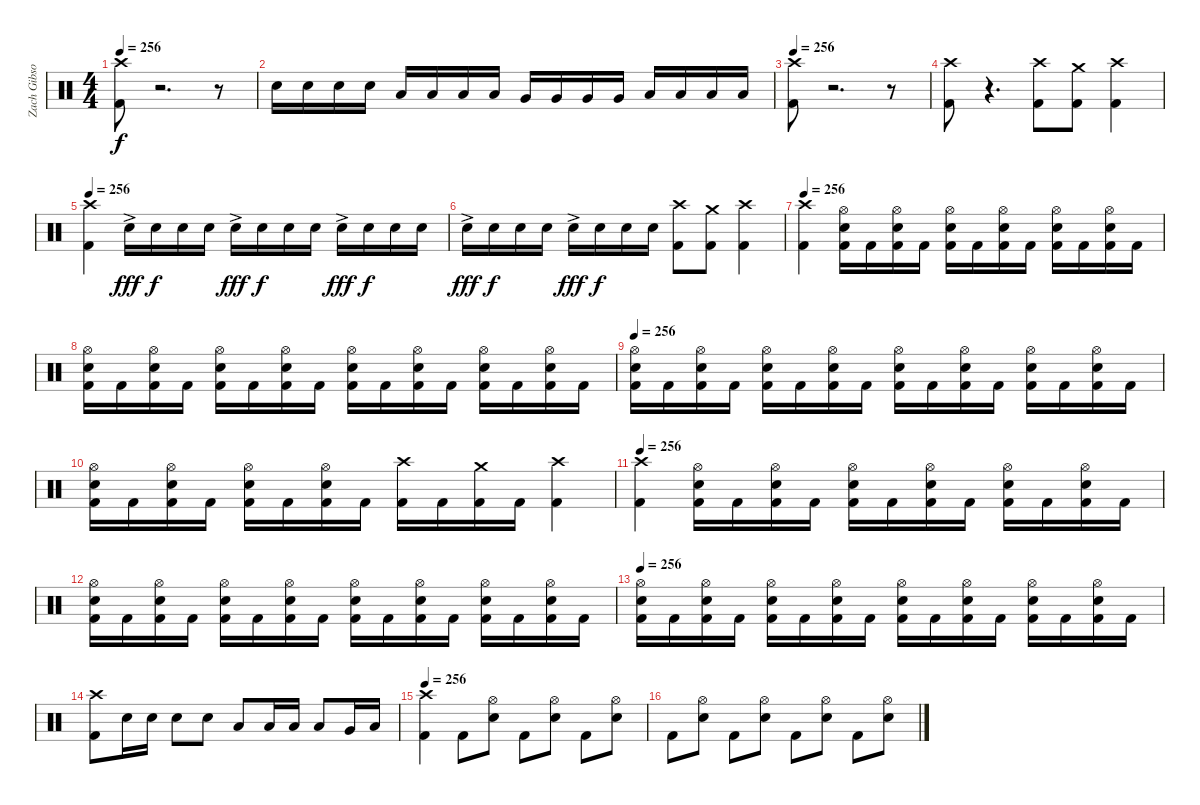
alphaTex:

\track ("Zach Gibson (Drums)" "Zach Gibso") {instrument percussion}
\staff {score}
\articulation defaults
\ts (4 4)
\tempo 256
\clef neutral
\ks c
("Crash high (hit)" "Kick (hit) 2").8{dy f volume 16} r.2{d volume 0} r.8 |
"Snare (hit) 2".16{volume 16 balance 0} "Snare (hit) 2".16 "Snare (hit) 2".16 "Snare (hit) 2".16 "Low Tom (hit)".16 "Low Tom (hit)".16 "Low Tom (hit)".16 "Low Tom (hit)".16 "Very Low Tom (hit)".16{balance 16} "Very Low Tom (hit)".16 "Very Low Tom (hit)".16 "Very Low Tom (hit)".16 "Low Floor Tom (hit)".16 "Low Floor Tom (hit)".16 "Low Floor Tom (hit)".16 "Low Floor Tom (hit)".16 |
\tempo 256
("Crash high (hit)" "Kick (hit) 2").8{volume 16 balance 8} r.2{d volume 0} r.8 |
("Crash high (hit)" "Kick (hit) 2").8{volume 16} r.4{d volume 0} ("Crash high (hit)" "Kick (hit) 2").8{volume 16} ("Crash medium (hit)" "Kick (hit) 2").8 ("Crash high (hit)" "Kick (hit) 2").4 |
\tempo 256
("Crash high (hit)" "Kick (hit) 2").4{balance 8} "Snare (hit) 2"{ac}.16{dy fff} "Snare (hit) 2".16{dy f} "Snare (hit) 2".16 "Snare (hit) 2".16 "Snare (hit) 2"{ac}.16{dy fff} "Snare (hit) 2".16{dy f} "Snare (hit) 2".16 "Snare (hit) 2".16 "Snare (hit) 2"{ac}.16{dy fff} "Snare (hit) 2".16{dy f} "Snare (hit) 2".16 "Snare (hit) 2".16 |
"Snare (hit) 2"{ac}.16{dy fff} "Snare (hit) 2".16{dy f} "Snare (hit) 2".16 "Snare (hit) 2".16 "Snare (hit) 2"{ac}.16{dy fff} "Snare (hit) 2".16{dy f} "Snare (hit) 2".16 "Snare (hit) 2".16 ("Crash high (hit)" "Kick (hit) 2").8 ("Crash medium (hit)" "Kick (hit) 2").8 ("Crash high (hit)" "Kick (hit) 2").4 |
\tempo 256
("Crash high (hit)" "Kick (hit) 2").4{volume 16 balance 8} ("Hi-Hat (open)" "Snare (hit) 2" "Kick (hit) 2").16 "Kick (hit) 2".16 ("Hi-Hat (open)" "Snare (hit) 2" "Kick (hit) 2").16 "Kick (hit) 2".16 ("Hi-Hat (open)" "Snare (hit) 2" "Kick (hit) 2").16 "Kick (hit) 2".16 ("Hi-Hat (open)" "Snare (hit) 2" "Kick (hit) 2").16 "Kick (hit) 2".16 ("Hi-Hat (open)" "Snare (hit) 2" "Kick (hit) 2").16 "Kick (hit) 2".16 ("Hi-Hat (open)" "Snare (hit) 2" "Kick (hit) 2").16 "Kick (hit) 2".16 |
("Hi-Hat (open)" "Snare (hit) 2" "Kick (hit) 2").16 "Kick (hit) 2".16 ("Hi-Hat (open)" "Snare (hit) 2" "Kick (hit) 2").16 "Kick (hit) 2".16 ("Hi-Hat (open)" "Snare (hit) 2" "Kick (hit) 2").16 "Kick (hit) 2".16 ("Hi-Hat (open)" "Snare (hit) 2" "Kick (hit) 2").16 "Kick (hit) 2".16 ("Hi-Hat (open)" "Snare (hit) 2" "Kick (hit) 2").16 "Kick (hit) 2".16 ("Hi-Hat (open)" "Snare (hit) 2" "Kick (hit) 2").16 "Kick (hit) 2".16 ("Hi-Hat (open)" "Snare (hit) 2" "Kick (hit) 2").16 "Kick (hit) 2".16 ("Hi-Hat (open)" "Snare (hit) 2" "Kick (hit) 2").16 "Kick (hit) 2".16 |
\tempo 256
("Hi-Hat (open)" "Snare (hit) 2" "Kick (hit) 2").16 "Kick (hit) 2".16 ("Hi-Hat (open)" "Snare (hit) 2" "Kick (hit) 2").16 "Kick (hit) 2".16 ("Hi-Hat (open)" "Snare (hit) 2" "Kick (hit) 2").16 "Kick (hit) 2".16 ("Hi-Hat (open)" "Snare (hit) 2" "Kick (hit) 2").16 "Kick (hit) 2".16 ("Hi-Hat (open)" "Snare (hit) 2" "Kick (hit) 2").16 "Kick (hit) 2".16 ("Hi-Hat (open)" "Snare (hit) 2" "Kick (hit) 2").16 "Kick (hit) 2".16 ("Hi-Hat (open)" "Snare (hit) 2" "Kick (hit) 2").16 "Kick (hit) 2".16 ("Hi-Hat (open)" "Snare (hit) 2" "Kick (hit) 2").16 "Kick (hit) 2".16 |
("Hi-Hat (open)" "Snare (hit) 2" "Kick (hit) 2").16 "Kick (hit) 2".16 ("Hi-Hat (open)" "Snare (hit) 2" "Kick (hit) 2").16 "Kick (hit) 2".16 ("Hi-Hat (open)" "Snare (hit) 2" "Kick (hit) 2").16 "Kick (hit) 2".16 ("Hi-Hat (open)" "Snare (hit) 2" "Kick (hit) 2").16 "Kick (hit) 2".16 ("Crash high (hit)" "Kick (hit) 2").16 "Kick (hit) 2".16 ("Crash medium (hit)" "Kick (hit) 2").16 "Kick (hit) 2".16 ("Crash high (hit)" "Kick (hit) 2").4 |
\tempo 256
("Crash high (hit)" "Kick (hit) 2").4{volume 16} ("Hi-Hat (open)" "Snare (hit) 2" "Kick (hit) 2").16 "Kick (hit) 2".16 ("Hi-Hat (open)" "Snare (hit) 2" "Kick (hit) 2").16 "Kick (hit) 2".16 ("Hi-Hat (open)" "Snare (hit) 2" "Kick (hit) 2").16 "Kick (hit) 2".16 ("Hi-Hat (open)" "Snare (hit) 2" "Kick (hit) 2").16 "Kick (hit) 2".16 ("Hi-Hat (open)" "Snare (hit) 2" "Kick (hit) 2").16 "Kick (hit) 2".16 ("Hi-Hat (open)" "Snare (hit) 2" "Kick (hit) 2").16 "Kick (hit) 2".16 |
("Hi-Hat (open)" "Snare (hit) 2" "Kick (hit) 2").16 "Kick (hit) 2".16 ("Hi-Hat (open)" "Snare (hit) 2" "Kick (hit) 2").16 "Kick (hit) 2".16 ("Hi-Hat (open)" "Snare (hit) 2" "Kick (hit) 2").16 "Kick (hit) 2".16 ("Hi-Hat (open)" "Snare (hit) 2" "Kick (hit) 2").16 "Kick (hit) 2".16 ("Hi-Hat (open)" "Snare (hit) 2" "Kick (hit) 2").16 "Kick (hit) 2".16 ("Hi-Hat (open)" "Snare (hit) 2" "Kick (hit) 2").16 "Kick (hit) 2".16 ("Hi-Hat (open)" "Snare (hit) 2" "Kick (hit) 2").16 "Kick (hit) 2".16 ("Hi-Hat (open)" "Snare (hit) 2" "Kick (hit) 2").16 "Kick (hit) 2".16 |
\tempo 256
("Hi-Hat (open)" "Snare (hit) 2" "Kick (hit) 2").16{volume 16 balance 8} "Kick (hit) 2".16 ("Hi-Hat (open)" "Snare (hit) 2" "Kick (hit) 2").16 "Kick (hit) 2".16 ("Hi-Hat (open)" "Snare (hit) 2" "Kick (hit) 2").16 "Kick (hit) 2".16 ("Hi-Hat (open)" "Snare (hit) 2" "Kick (hit) 2").16 "Kick (hit) 2".16 ("Hi-Hat (open)" "Snare (hit) 2" "Kick (hit) 2").16 "Kick (hit) 2".16 ("Hi-Hat (open)" "Snare (hit) 2" "Kick (hit) 2").16 "Kick (hit) 2".16 ("Hi-Hat (open)" "Snare (hit) 2" "Kick (hit) 2").16 "Kick (hit) 2".16 ("Hi-Hat (open)" "Snare (hit) 2" "Kick (hit) 2").16 "Kick (hit) 2".16 |
("Crash high (hit)" "Kick (hit) 2").8 "Snare (hit) 2".16 "Snare (hit) 2".16 "Snare (hit) 2".8 "Snare (hit) 2".8 "Low Tom (hit)".8 "Low Tom (hit)".16 "Low Tom (hit)".16 "Low Tom (hit)".8 "Very Low Tom (hit)".16 "Low Floor Tom (hit)".16 |
\tempo 256
("Crash high (hit)" "Kick (hit) 2").4 "Kick (hit) 2".8 ("Hi-Hat (open)" "Snare (hit) 2").8 "Kick (hit) 2".8 ("Hi-Hat (open)" "Snare (hit) 2").8 "Kick (hit) 2".8 ("Hi-Hat (open)" "Snare (hit) 2").8 |
"Kick (hit) 2".8 ("Hi-Hat (open)" "Snare (hit) 2").8 "Kick (hit) 2".8 ("Hi-Hat (open)" "Snare (hit) 2").8 "Kick (hit) 2".8 ("Hi-Hat (open)" "Snare (hit) 2").8 "Kick (hit) 2".8 ("Hi-Hat (open)" "Snare (hit) 2").8
